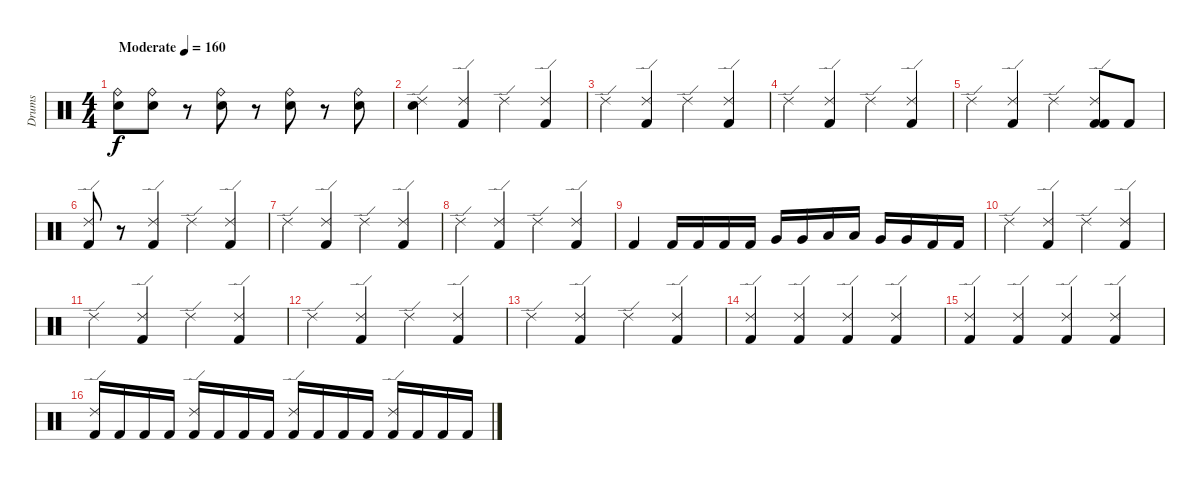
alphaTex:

\track ("Drums" "Drums") {instrument percussion}
\staff {score}
\articulation defaults
\ts (4 4)
\tempo (160 "Moderate")
\clef neutral
\ks c
("Ride (bell)" "Snare (hit) 2").8{dy f} ("Ride (bell)" "Snare (hit) 2").8 r.8 ("Ride (bell)" "Snare (hit) 2").8 r.8 ("Ride (bell)" "Snare (hit) 2").8 r.8 ("Ride (bell)" "Snare (hit) 2").8 |
("Ride (edge) 2" "Snare (hit) 2").4 ("Ride (edge) 2" "Kick (hit) 2").4 "Ride (edge) 2".4 ("Ride (edge) 2" "Kick (hit) 2").4 |
"Ride (edge) 2".4 ("Ride (edge) 2" "Kick (hit) 2").4 "Ride (edge) 2".4 ("Ride (edge) 2" "Kick (hit) 2").4 |
"Ride (edge) 2".4 ("Ride (edge) 2" "Kick (hit) 2").4 "Ride (edge) 2".4 ("Ride (edge) 2" "Kick (hit) 2").4 |
"Ride (edge) 2".4 ("Ride (edge) 2" "Kick (hit) 2").4 "Ride (edge) 2".4 ("Ride (edge) 2" "Kick (hit) 2" "Kick (hit) 2").8 "Kick (hit) 2".8 |
("Ride (edge) 2" "Kick (hit) 2").8 r.8 ("Ride (edge) 2" "Kick (hit) 2").4 "Ride (edge) 2".4 ("Ride (edge) 2" "Kick (hit) 2").4 |
"Ride (edge) 2".4 ("Ride (edge) 2" "Kick (hit) 2").4 "Ride (edge) 2".4 ("Ride (edge) 2" "Kick (hit) 2").4 |
"Ride (edge) 2".4 ("Ride (edge) 2" "Kick (hit) 2").4 "Ride (edge) 2".4 ("Ride (edge) 2" "Kick (hit) 2").4 |
"Kick (hit) 2".4 "Kick (hit) 2".16 "Kick (hit) 2".16 "Kick (hit) 2".16 "Kick (hit) 2".16 "Very Low Tom (hit)".16 "Very Low Tom (hit)".16 "Low Floor Tom (hit)".16 "Low Floor Tom (hit)".16 "Very Low Tom (hit)".16 "Very Low Tom (hit)".16 "Kick (hit) 2".16 "Kick (hit) 2".16 |
"Ride (edge) 2".4 ("Ride (edge) 2" "Kick (hit) 2").4 "Ride (edge) 2".4 ("Ride (edge) 2" "Kick (hit) 2").4 |
"Ride (edge) 2".4 ("Ride (edge) 2" "Kick (hit) 2").4 "Ride (edge) 2".4 ("Ride (edge) 2" "Kick (hit) 2").4 |
"Ride (edge) 2".4 ("Ride (edge) 2" "Kick (hit) 2").4 "Ride (edge) 2".4 ("Ride (edge) 2" "Kick (hit) 2").4 |
"Ride (edge) 2".4 ("Ride (edge) 2" "Kick (hit) 2").4 "Ride (edge) 2".4 ("Ride (edge) 2" "Kick (hit) 2").4 |
("Ride (edge) 2" "Kick (hit) 2").4 ("Ride (edge) 2" "Kick (hit) 2").4 ("Ride (edge) 2" "Kick (hit) 2").4 ("Ride (edge) 2" "Kick (hit) 2").4 |
("Ride (edge) 2" "Kick (hit) 2").4 ("Ride (edge) 2" "Kick (hit) 2").4 ("Ride (edge) 2" "Kick (hit) 2").4 ("Ride (edge) 2" "Kick (hit) 2").4 |
("Ride (edge) 2" "Kick (hit) 2").16 "Kick (hit) 2".16 "Kick (hit) 2".16 "Kick (hit) 2".16 ("Ride (edge) 2" "Kick (hit) 2").16 "Kick (hit) 2".16 "Kick (hit) 2".16 "Kick (hit) 2".16 ("Ride (edge) 2" "Kick (hit) 2").16 "Kick (hit) 2".16 "Kick (hit) 2".16 "Kick (hit) 2".16 ("Ride (edge) 2" "Kick (hit) 2").16 "Kick (hit) 2".16 "Kick (hit) 2".16 "Kick (hit) 2".16
